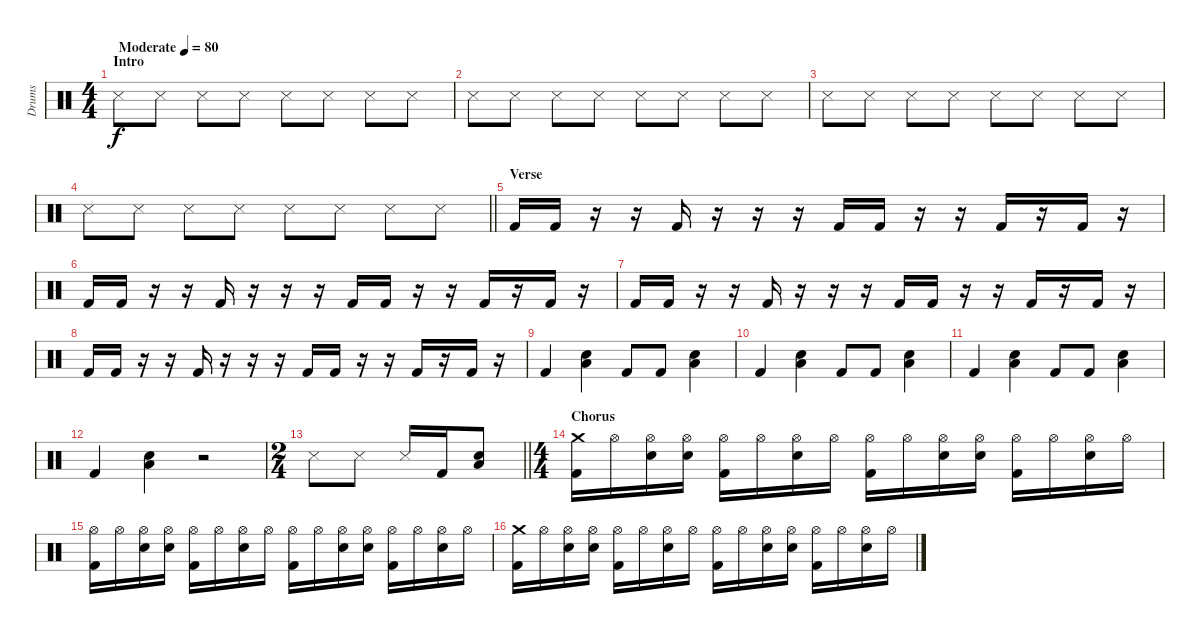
\track ("Drums" "Drums") {instrument percussion}
\staff {score}
\articulation defaults
\ts (4 4)
\section ("" "Intro")
\tempo (80 "Moderate")
\clef neutral
\ks c "Snare (side stick) 3".8{dy f} "Snare (side stick) 3".8 "Snare (side stick) 3".8 "Snare (side stick) 3".8 "Snare (side stick) 3".8 "Snare (side stick) 3".8 "Snare (side stick) 3".8 "Snare (side stick) 3".8
|
"Snare (side stick) 3".8 "Snare (side stick) 3".8 "Snare (side stick) 3".8 "Snare (side stick) 3".8 "Snare (side stick) 3".8 "Snare (side stick) 3".8 "Snare (side stick) 3".8 "Snare (side stick) 3".8 |
"Snare (side stick) 3".8 "Snare (side stick) 3".8 "Snare (side stick) 3".8 "Snare (side stick) 3".8 "Snare (side stick) 3".8 "Snare (side stick) 3".8 "Snare (side stick) 3".8 "Snare (side stick) 3".8 |
\barLineRight lightlight "Snare (side stick) 3".8 "Snare (side stick) 3".8 "Snare (side stick) 3".8 "Snare (side stick) 3".8 "Snare (side stick) 3".8 "Snare (side stick) 3".8 "Snare (side stick) 3".8 "Snare (side stick) 3".8
|
\section ("" "Verse")
"Kick (hit) 2".16 "Kick (hit) 2".16 r.16 r.16 "Kick (hit) 2".16 r.16 r.16 r.16 "Kick (hit) 2".16 "Kick (hit) 2".16 r.16 r.16 "Kick (hit) 2".16 r.16 "Kick (hit) 2".16 r.16 |
"Kick (hit) 2".16 "Kick (hit) 2".16 r.16 r.16 "Kick (hit) 2".16 r.16 r.16 r.16 "Kick (hit) 2".16 "Kick (hit) 2".16 r.16 r.16 "Kick (hit) 2".16 r.16 "Kick (hit) 2".16 r.16 |
"Kick (hit) 2".16 "Kick (hit) 2".16 r.16 r.16 "Kick (hit) 2".16 r.16 r.16 r.16 "Kick (hit) 2".16 "Kick (hit) 2".16 r.16 r.16 "Kick (hit) 2".16 r.16 "Kick (hit) 2".16 r.16 |
"Kick (hit) 2".16 "Kick (hit) 2".16 r.16 r.16 "Kick (hit) 2".16 r.16 r.16 r.16 "Kick (hit) 2".16 "Kick (hit) 2".16 r.16 r.16 "Kick (hit) 2".16 r.16 "Kick (hit) 2".16 r.16 |
"Kick (hit) 2".4 ("Low Tom (hit)" "Snare (hit) 2").4 "Kick (hit) 2".8 "Kick (hit) 2".8 ("Low Tom (hit)" "Snare (hit) 2").4 |
"Kick (hit) 2".4 ("Low Tom (hit)" "Snare (hit) 2").4 "Kick (hit) 2".8 "Kick (hit) 2".8 ("Low Tom (hit)" "Snare (hit) 2").4 |
"Kick (hit) 2".4 ("Low Tom (hit)" "Snare (hit) 2").4 "Kick (hit) 2".8 "Kick (hit) 2".8 ("Low Tom (hit)" "Snare (hit) 2").4 |
"Kick (hit) 2".4 ("Low Tom (hit)" "Snare (hit) 2").4 r.2 |
\ts (2 4)
\barLineRight lightlight "Snare (side stick) 3".8 "Snare (side stick) 3".8 "Snare (side stick) 3".16 "Kick (hit) 2".16
("Low Tom (hit)" "Snare (hit) 2").8 |
\ts (4 4)
\section ("" "Chorus")
("Crash medium (hit)" "Kick (hit) 2").16 "Hi-Hat (open)".16 ("Hi-Hat (open)" "Snare (hit) 2").16 ("Hi-Hat (open)" "Snare (hit) 2").16 ("Hi-Hat (open)" "Kick (hit) 2").16 "Hi-Hat (open)".16 ("Hi-Hat (open)" "Snare (hit) 2").16 "Hi-Hat (open)".16 ("Hi-Hat (open)" "Kick (hit) 2").16 "Hi-Hat (open)".16 ("Hi-Hat (open)" "Snare (hit) 2").16 ("Hi-Hat (open)" "Snare (hit) 2").16 ("Hi-Hat (open)" "Kick (hit) 2").16 "Hi-Hat (open)".16 ("Hi-Hat (open)" "Snare (hit) 2").16 "Hi-Hat (open)".16 |
("Hi-Hat (open)" "Kick (hit) 2").16 "Hi-Hat (open)".16 ("Hi-Hat (open)" "Snare (hit) 2").16 ("Hi-Hat (open)" "Snare (hit) 2").16 ("Hi-Hat (open)" "Kick (hit) 2").16 "Hi-Hat (open)".16 ("Hi-Hat (open)" "Snare (hit) 2").16 "Hi-Hat (open)".16 ("Hi-Hat (open)" "Kick (hit) 2").16 "Hi-Hat (open)".16 ("Hi-Hat (open)" "Snare (hit) 2").16 ("Hi-Hat (open)" "Snare (hit) 2").16 ("Hi-Hat (open)" "Kick (hit) 2").16 "Hi-Hat (open)".16 ("Hi-Hat (open)" "Snare (hit) 2").16 "Hi-Hat (open)".16 |
("Crash medium (hit)" "Kick (hit) 2").16 "Hi-Hat (open)".16 ("Hi-Hat (open)" "Snare (hit) 2").16 ("Hi-Hat (open)" "Snare (hit) 2").16 ("Hi-Hat (open)" "Kick (hit) 2").16 "Hi-Hat (open)".16 ("Hi-Hat (open)" "Snare (hit) 2").16 "Hi-Hat (open)".16 ("Hi-Hat (open)" "Kick (hit) 2").16 "Hi-Hat (open)".16 ("Hi-Hat (open)" "Snare (hit) 2").16 ("Hi-Hat (open)" "Snare (hit) 2").16 ("Hi-Hat (open)" "Kick (hit) 2").16 "Hi-Hat (open)".16 ("Hi-Hat (open)" "Snare (hit) 2").16 "Hi-Hat (open)".16
